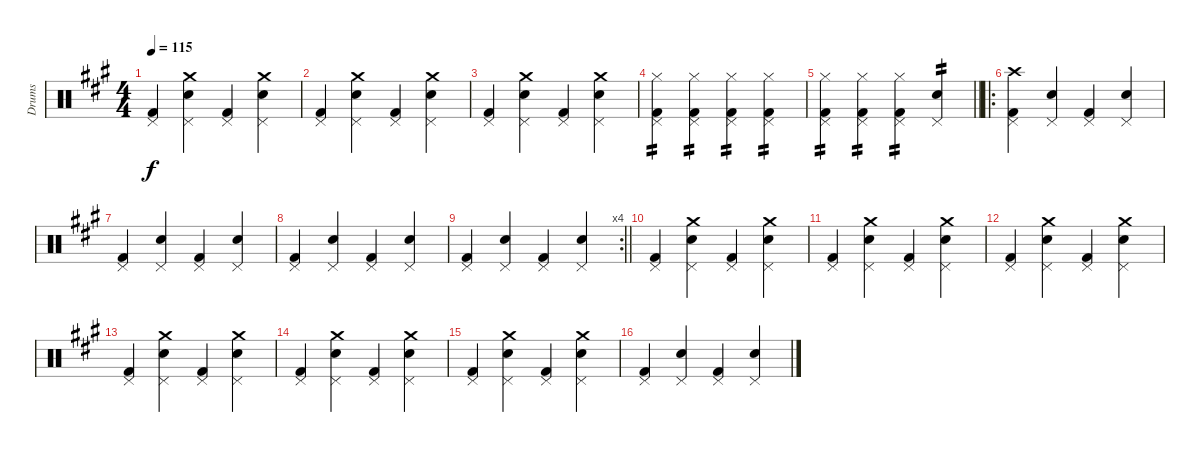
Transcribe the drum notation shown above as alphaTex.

\track ("Drums" "Drums") {instrument percussion}
\staff {score}
\articulation defaults
\ts (4 4)
\tempo 115
\clef neutral
\ks a
("Kick (hit) 2" "Pedal Hi-Hat (hit)").4{dy f} ("Snare (hit) 2" "Pedal Hi-Hat (hit)" "Crash medium (hit)").4 ("Kick (hit) 2" "Pedal Hi-Hat (hit)").4 ("Snare (hit) 2" "Pedal Hi-Hat (hit)" "Crash medium (hit)").4 |
("Kick (hit) 2" "Pedal Hi-Hat (hit)").4 ("Snare (hit) 2" "Pedal Hi-Hat (hit)" "Crash medium (hit)").4 ("Kick (hit) 2" "Pedal Hi-Hat (hit)").4 ("Snare (hit) 2" "Pedal Hi-Hat (hit)" "Crash medium (hit)").4 |
("Kick (hit) 2" "Pedal Hi-Hat (hit)").4 ("Snare (hit) 2" "Pedal Hi-Hat (hit)" "Crash medium (hit)").4 ("Kick (hit) 2" "Pedal Hi-Hat (hit)").4 ("Snare (hit) 2" "Pedal Hi-Hat (hit)" "Crash medium (hit)").4 |
("Kick (hit) 2" "Pedal Hi-Hat (hit)" "Hi-Hat (closed)").4{tp 2} ("Kick (hit) 2" "Pedal Hi-Hat (hit)" "Hi-Hat (closed)").4{tp 2} ("Kick (hit) 2" "Pedal Hi-Hat (hit)" "Hi-Hat (closed)").4{tp 2} ("Kick (hit) 2" "Pedal Hi-Hat (hit)" "Hi-Hat (closed)").4{tp 2} |
\barLineRight lightlight
("Kick (hit) 2" "Pedal Hi-Hat (hit)" "Hi-Hat (closed)").4{tp 2} ("Kick (hit) 2" "Pedal Hi-Hat (hit)" "Hi-Hat (closed)").4{tp 2} ("Kick (hit) 2" "Pedal Hi-Hat (hit)" "Hi-Hat (closed)").4{tp 2} ("Snare (hit) 2" "Pedal Hi-Hat (hit)").4{tp 2} |
\ro
("Kick (hit) 2" "Pedal Hi-Hat (hit)" "Crash high (hit)").4 ("Snare (hit) 2" "Pedal Hi-Hat (hit)").4 ("Kick (hit) 2" "Pedal Hi-Hat (hit)").4 ("Snare (hit) 2" "Pedal Hi-Hat (hit)").4 |
("Kick (hit) 2" "Pedal Hi-Hat (hit)").4 ("Snare (hit) 2" "Pedal Hi-Hat (hit)").4 ("Kick (hit) 2" "Pedal Hi-Hat (hit)").4 ("Snare (hit) 2" "Pedal Hi-Hat (hit)").4 |
("Kick (hit) 2" "Pedal Hi-Hat (hit)").4 ("Snare (hit) 2" "Pedal Hi-Hat (hit)").4 ("Kick (hit) 2" "Pedal Hi-Hat (hit)").4 ("Snare (hit) 2" "Pedal Hi-Hat (hit)").4 |
\rc 4
\barLineRight lightlight
("Kick (hit) 2" "Pedal Hi-Hat (hit)").4 ("Snare (hit) 2" "Pedal Hi-Hat (hit)").4 ("Kick (hit) 2" "Pedal Hi-Hat (hit)").4 ("Snare (hit) 2" "Pedal Hi-Hat (hit)").4 |
("Kick (hit) 2" "Pedal Hi-Hat (hit)").4 ("Snare (hit) 2" "Pedal Hi-Hat (hit)" "Crash medium (hit)").4 ("Kick (hit) 2" "Pedal Hi-Hat (hit)").4 ("Snare (hit) 2" "Pedal Hi-Hat (hit)" "Crash medium (hit)").4 |
("Kick (hit) 2" "Pedal Hi-Hat (hit)").4 ("Snare (hit) 2" "Pedal Hi-Hat (hit)" "Crash medium (hit)").4 ("Kick (hit) 2" "Pedal Hi-Hat (hit)").4 ("Snare (hit) 2" "Pedal Hi-Hat (hit)" "Crash medium (hit)").4 |
("Kick (hit) 2" "Pedal Hi-Hat (hit)").4 ("Snare (hit) 2" "Pedal Hi-Hat (hit)" "Crash medium (hit)").4 ("Kick (hit) 2" "Pedal Hi-Hat (hit)").4 ("Snare (hit) 2" "Pedal Hi-Hat (hit)" "Crash medium (hit)").4 |
("Kick (hit) 2" "Pedal Hi-Hat (hit)").4 ("Snare (hit) 2" "Pedal Hi-Hat (hit)" "Crash medium (hit)").4 ("Kick (hit) 2" "Pedal Hi-Hat (hit)").4 ("Snare (hit) 2" "Pedal Hi-Hat (hit)" "Crash medium (hit)").4 |
("Kick (hit) 2" "Pedal Hi-Hat (hit)").4 ("Snare (hit) 2" "Pedal Hi-Hat (hit)" "Crash medium (hit)").4 ("Kick (hit) 2" "Pedal Hi-Hat (hit)").4 ("Snare (hit) 2" "Pedal Hi-Hat (hit)" "Crash medium (hit)").4 |
("Kick (hit) 2" "Pedal Hi-Hat (hit)").4 ("Snare (hit) 2" "Pedal Hi-Hat (hit)" "Crash medium (hit)").4 ("Kick (hit) 2" "Pedal Hi-Hat (hit)").4 ("Snare (hit) 2" "Pedal Hi-Hat (hit)" "Crash medium (hit)").4 |
("Kick (hit) 2" "Pedal Hi-Hat (hit)").4 ("Snare (hit) 2" "Pedal Hi-Hat (hit)").4 ("Kick (hit) 2" "Pedal Hi-Hat (hit)").4 ("Snare (hit) 2" "Pedal Hi-Hat (hit)").4
